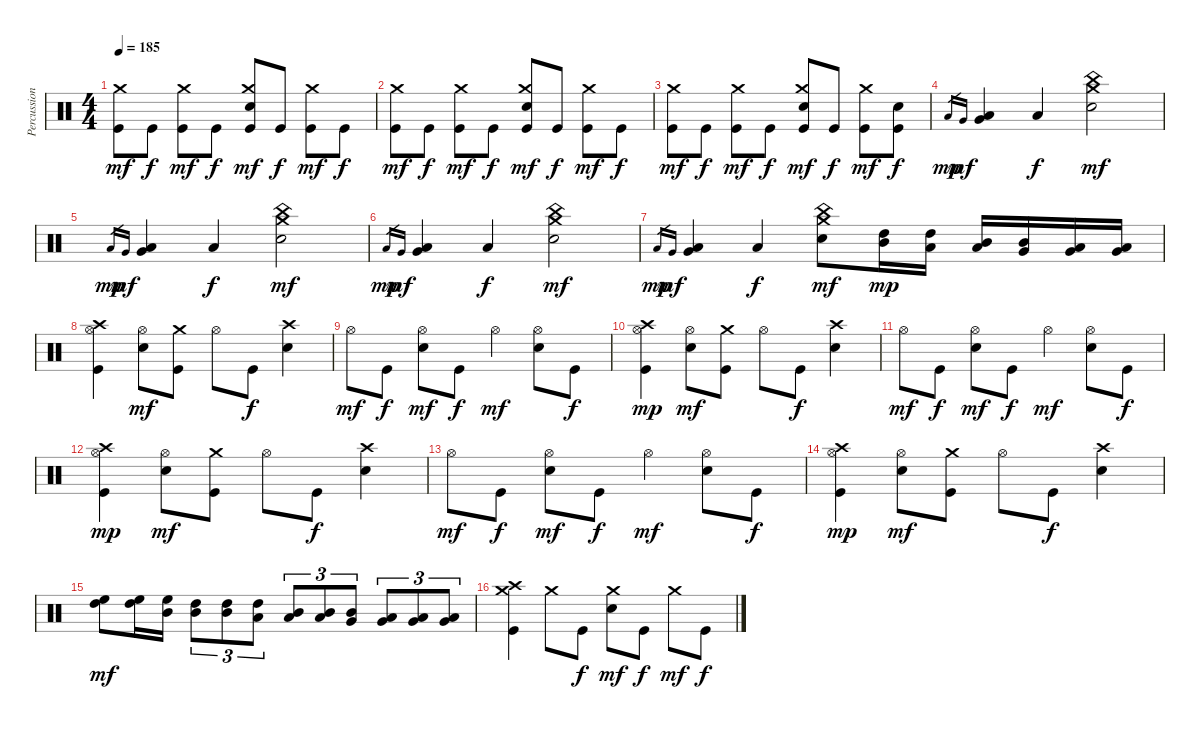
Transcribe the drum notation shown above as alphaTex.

\track ("Percussions" "Percussion") {instrument percussion}
\staff {score}
\articulation defaults
\ts (4 4)
\tempo 185
\clef neutral
\ks c
("Kick (hit)" "Crash medium (hit)").8{dy mf} "Kick (hit)".8{dy f} ("Kick (hit)" "Crash medium (hit)").8{dy mf} "Kick (hit)".8{dy f} ("Kick (hit)" "Electric Snare (hit)" "Crash medium (hit)").8{dy mf} "Kick (hit)".8{dy f} ("Kick (hit)" "Crash medium (hit)").8{dy mf} "Kick (hit)".8{dy f} |
("Kick (hit)" "Crash medium (hit)").8{dy mf} "Kick (hit)".8{dy f} ("Kick (hit)" "Crash medium (hit)").8{dy mf} "Kick (hit)".8{dy f} ("Kick (hit)" "Electric Snare (hit)" "Crash medium (hit)").8{dy mf} "Kick (hit)".8{dy f} ("Kick (hit)" "Crash medium (hit)").8{dy mf} "Kick (hit)".8{dy f} |
("Kick (hit)" "Crash medium (hit)").8{dy mf} "Kick (hit)".8{dy f} ("Kick (hit)" "Crash medium (hit)").8{dy mf} "Kick (hit)".8{dy f} ("Kick (hit)" "Electric Snare (hit)" "Crash medium (hit)").8{dy mf} "Kick (hit)".8{dy f} ("Kick (hit)" "Crash medium (hit)").8{dy mf} ("Kick (hit)" "Electric Snare (hit)").8{dy f} |
"Low Floor Tom (hit)".16{gr dy mp} "Very Low Tom (hit)".16{gr dy mf} ("Low Floor Tom (hit)" "Very Low Tom (hit)").4 "Low Floor Tom (hit)".4{dy f} ("Electric Snare (hit)" "Crash medium (hit)" "China (hit)").2{dy mf} |
"Low Floor Tom (hit)".16{gr dy mp} "Very Low Tom (hit)".16{gr dy mf} ("Low Floor Tom (hit)" "Very Low Tom (hit)").4 "Low Floor Tom (hit)".4{dy f} ("Electric Snare (hit)" "Crash medium (hit)" "China (hit)").2{dy mf} |
"Low Floor Tom (hit)".16{gr dy mp} "Very Low Tom (hit)".16{gr dy mf} ("Low Floor Tom (hit)" "Very Low Tom (hit)").4 "Low Floor Tom (hit)".4{dy f} ("Electric Snare (hit)" "Crash medium (hit)" "China (hit)").2{dy mf} |
"Low Floor Tom (hit)".16{gr dy mp} "Very Low Tom (hit)".16{gr dy mf} ("Low Floor Tom (hit)" "Very Low Tom (hit)").4 "Low Floor Tom (hit)".4{dy f} ("Electric Snare (hit)" "Crash medium (hit)" "China (hit)").8{dy mf} ("Mid Tom (hit)" "High Tom (hit)").16{dy mp} ("Low Tom (hit)" "High Tom (hit)").16 ("Low Tom (hit)" "Mid Tom (hit)").16 ("Very Low Tom (hit)" "Mid Tom (hit)").16 ("Very Low Tom (hit)" "Low Tom (hit)").16 ("Very Low Tom (hit)" "Low Tom (hit)").16 |
("Kick (hit)" "Hi-Hat (open)" "Crash high (hit)").4 ("Electric Snare (hit)" "Hi-Hat (open)").8{dy mf} ("Kick (hit)" "Crash medium (hit)").8 "Hi-Hat (open)".8 "Kick (hit)".8{dy f} ("Electric Snare (hit)" "Crash high (hit)").4 |
"Hi-Hat (open)".8{dy mf} "Kick (hit)".8{dy f} ("Electric Snare (hit)" "Hi-Hat (open)").8{dy mf} "Kick (hit)".8{dy f} "Hi-Hat (open)".4{dy mf} ("Electric Snare (hit)" "Hi-Hat (open)").8 "Kick (hit)".8{dy f} |
("Kick (hit)" "Hi-Hat (open)" "Crash high (hit)").4{dy mp} ("Electric Snare (hit)" "Hi-Hat (open)").8{dy mf} ("Kick (hit)" "Crash medium (hit)").8 "Hi-Hat (open)".8 "Kick (hit)".8{dy f} ("Electric Snare (hit)" "Crash high (hit)").4 |
"Hi-Hat (open)".8{dy mf} "Kick (hit)".8{dy f} ("Electric Snare (hit)" "Hi-Hat (open)").8{dy mf} "Kick (hit)".8{dy f} "Hi-Hat (open)".4{dy mf} ("Electric Snare (hit)" "Hi-Hat (open)").8 "Kick (hit)".8{dy f} |
("Kick (hit)" "Hi-Hat (open)" "Crash high (hit)").4{dy mp} ("Electric Snare (hit)" "Hi-Hat (open)").8{dy mf} ("Kick (hit)" "Crash medium (hit)").8 "Hi-Hat (open)".8 "Kick (hit)".8{dy f} ("Electric Snare (hit)" "Crash high (hit)").4 |
"Hi-Hat (open)".8{dy mf} "Kick (hit)".8{dy f} ("Electric Snare (hit)" "Hi-Hat (open)").8{dy mf} "Kick (hit)".8{dy f} "Hi-Hat (open)".4{dy mf} ("Electric Snare (hit)" "Hi-Hat (open)").8 "Kick (hit)".8{dy f} |
("Kick (hit)" "Hi-Hat (open)" "Crash high (hit)").4{dy mp} ("Electric Snare (hit)" "Hi-Hat (open)").8{dy mf} ("Kick (hit)" "Crash medium (hit)").8 "Hi-Hat (open)".8 "Kick (hit)".8{dy f} ("Electric Snare (hit)" "Crash high (hit)").4 |
("High Tom (hit)" "High Floor Tom (hit)").8{dy mf} ("High Tom (hit)" "High Floor Tom (hit)").16 ("Mid Tom (hit)" "High Floor Tom (hit)").16 ("Mid Tom (hit)" "High Tom (hit)").8{tu (3 2)} ("Mid Tom (hit)" "High Tom (hit)").8{tu (3 2)} ("Low Tom (hit)" "High Tom (hit)").8{tu (3 2)} ("Low Tom (hit)" "Mid Tom (hit)").8{tu (3 2)} ("Low Tom (hit)" "Mid Tom (hit)").8{tu (3 2)} ("Very Low Tom (hit)" "Mid Tom (hit)").8{tu (3 2)} ("Very Low Tom (hit)" "Low Tom (hit)").8{tu (3 2)} ("Very Low Tom (hit)" "Low Tom (hit)").8{tu (3 2)} ("Low Floor Tom (hit)" "Very Low Tom (hit)").8{tu (3 2)} |
("Kick (hit)" "Crash medium (hit)" "Crash high (hit)").4 "Crash medium (hit)".8 "Kick (hit)".8{dy f} ("Electric Snare (hit)" "Crash medium (hit)").8{dy mf} "Kick (hit)".8{dy f} "Crash medium (hit)".8{dy mf} "Kick (hit)".8{dy f}
